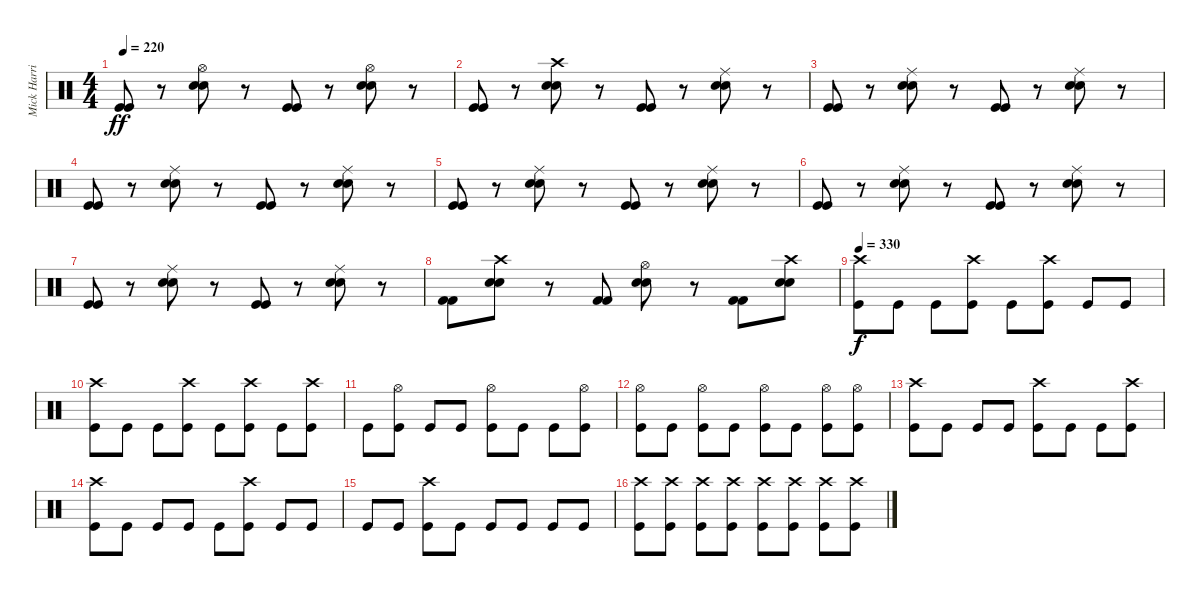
\track ("Mick Harris" "Mick Harri") {instrument percussion}
\staff {score}
\articulation defaults
\ts (4 4)
\tempo 220
\clef neutral
\ks c
("Kick (hit)" "Kick (hit)").8{dy ff} r.8 ("Hi-Hat (open)" "Snare (hit) 2" "Snare (hit) 2").8 r.8 ("Kick (hit)" "Kick (hit)").8 r.8 ("Hi-Hat (open)" "Snare (hit) 2" "Snare (hit) 2").8 r.8 |
("Kick (hit)" "Kick (hit)").8 r.8 ("Crash high (hit)" "Snare (hit) 2" "Snare (hit) 2").8 r.8 ("Kick (hit)" "Kick (hit)").8 r.8 ("Ride (middle)" "Snare (hit) 2" "Snare (hit) 2").8 r.8 |
("Kick (hit)" "Kick (hit)").8 r.8 ("Ride (middle)" "Snare (hit) 2" "Snare (hit) 2").8 r.8 ("Kick (hit)" "Kick (hit)").8 r.8 ("Ride (middle)" "Snare (hit) 2" "Snare (hit) 2").8 r.8 |
("Kick (hit)" "Kick (hit)").8 r.8 ("Ride (middle)" "Snare (hit) 2" "Snare (hit) 2").8 r.8 ("Kick (hit)" "Kick (hit)").8 r.8 ("Ride (middle)" "Snare (hit) 2" "Snare (hit) 2").8 r.8 |
("Kick (hit)" "Kick (hit)").8 r.8 ("Ride (middle)" "Snare (hit) 2" "Snare (hit) 2").8 r.8 ("Kick (hit)" "Kick (hit)").8 r.8 ("Ride (middle)" "Snare (hit) 2" "Snare (hit) 2").8 r.8 |
("Kick (hit)" "Kick (hit)").8 r.8 ("Ride (middle)" "Snare (hit) 2" "Snare (hit) 2").8 r.8 ("Kick (hit)" "Kick (hit)").8 r.8 ("Ride (middle)" "Snare (hit) 2" "Snare (hit) 2").8 r.8 |
("Kick (hit)" "Kick (hit)").8 r.8 ("Ride (middle)" "Snare (hit) 2" "Snare (hit) 2").8 r.8 ("Kick (hit)" "Kick (hit)").8 r.8 ("Ride (middle)" "Snare (hit) 2" "Snare (hit) 2").8 r.8 |
("Kick (hit) 2" "Kick (hit) 2").8 ("Crash high (hit)" "Snare (hit) 2" "Snare (hit) 2").8 r.8 ("Kick (hit) 2" "Kick (hit) 2").8 ("Hi-Hat (open)" "Snare (hit) 2" "Snare (hit) 2").8 r.8 ("Kick (hit) 2" "Kick (hit) 2").8 ("Crash high (hit)" "Snare (hit) 2" "Snare (hit) 2").8 |
\tempo 330
("Crash high (hit)" "Kick (hit)").8{dy f} "Kick (hit)".8 "Kick (hit)".8 ("Crash high (hit)" "Kick (hit)").8 "Kick (hit)".8 ("Crash high (hit)" "Kick (hit)").8 "Kick (hit)".8 "Kick (hit)".8 |
("Crash high (hit)" "Kick (hit)").8 "Kick (hit)".8 "Kick (hit)".8 ("Crash high (hit)" "Kick (hit)").8 "Kick (hit)".8 ("Crash high (hit)" "Kick (hit)").8 "Kick (hit)".8 ("Crash high (hit)" "Kick (hit)").8 |
"Kick (hit)".8 ("Hi-Hat (open)" "Kick (hit)").8 "Kick (hit)".8 "Kick (hit)".8 ("Hi-Hat (open)" "Kick (hit)").8 "Kick (hit)".8 "Kick (hit)".8 ("Hi-Hat (open)" "Kick (hit)").8 |
("Hi-Hat (open)" "Kick (hit)").8 "Kick (hit)".8 ("Hi-Hat (open)" "Kick (hit)").8 "Kick (hit)".8 ("Hi-Hat (open)" "Kick (hit)").8 "Kick (hit)".8 ("Hi-Hat (open)" "Kick (hit)").8 ("Hi-Hat (open)" "Kick (hit)").8 |
("Crash high (hit)" "Kick (hit)").8 "Kick (hit)".8 "Kick (hit)".8 "Kick (hit)".8 ("Crash high (hit)" "Kick (hit)").8 "Kick (hit)".8 "Kick (hit)".8 ("Crash high (hit)" "Kick (hit)").8 |
("Crash high (hit)" "Kick (hit)").8 "Kick (hit)".8 "Kick (hit)".8 "Kick (hit)".8 "Kick (hit)".8 ("Crash high (hit)" "Kick (hit)").8 "Kick (hit)".8 "Kick (hit)".8 |
"Kick (hit)".8 "Kick (hit)".8 ("Crash high (hit)" "Kick (hit)").8 "Kick (hit)".8 "Kick (hit)".8 "Kick (hit)".8 "Kick (hit)".8 "Kick (hit)".8 |
("Crash high (hit)" "Kick (hit)").8 ("Crash high (hit)" "Kick (hit)").8 ("Crash high (hit)" "Kick (hit)").8 ("Crash high (hit)" "Kick (hit)").8 ("Crash high (hit)" "Kick (hit)").8 ("Crash high (hit)" "Kick (hit)").8 ("Crash high (hit)" "Kick (hit)").8 ("Crash high (hit)" "Kick (hit)").8
